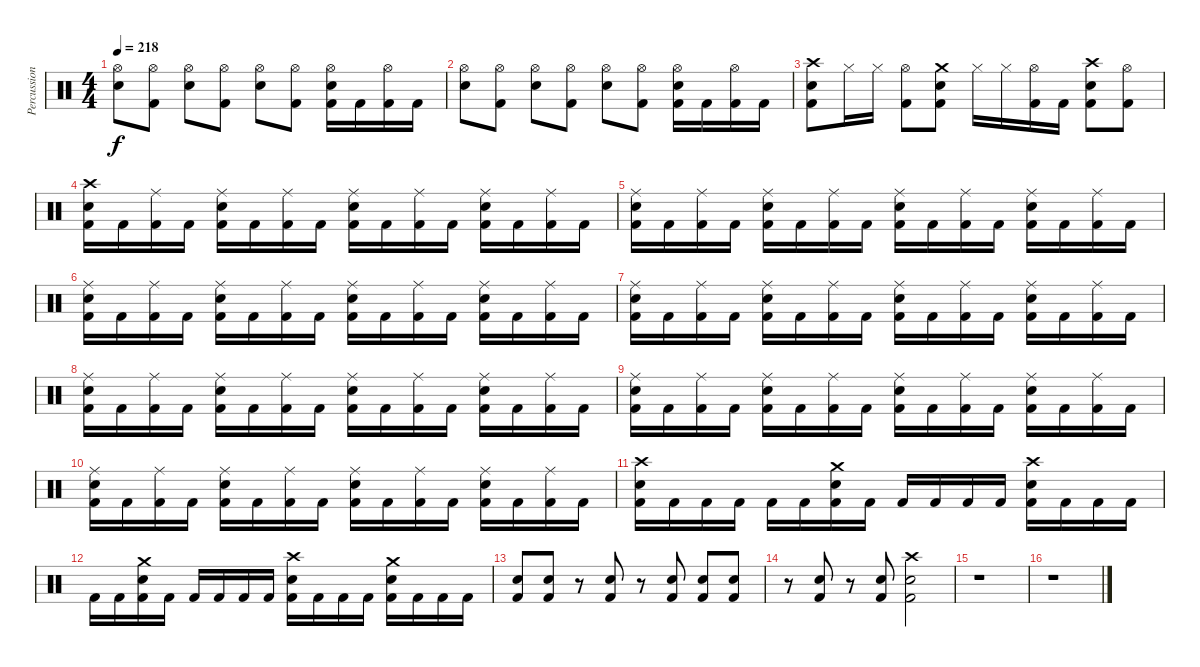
\track ("Percussion" "Percussion") {instrument percussion}
\staff {score}
\articulation defaults
\ts (4 4)
\tempo 218
\clef neutral
\ks c
("Hi-Hat (open)" "Electric Snare (hit)").8{dy f} ("Hi-Hat (open)" "Kick (hit) 2").8 ("Hi-Hat (open)" "Electric Snare (hit)").8 ("Hi-Hat (open)" "Kick (hit) 2").8 ("Hi-Hat (open)" "Electric Snare (hit)").8 ("Hi-Hat (open)" "Kick (hit) 2").8 ("Hi-Hat (open)" "Electric Snare (hit)" "Kick (hit) 2").16 "Kick (hit) 2".16 ("Hi-Hat (open)" "Kick (hit) 2").16 "Kick (hit) 2".16 |
("Hi-Hat (open)" "Electric Snare (hit)").8 ("Hi-Hat (open)" "Kick (hit) 2").8 ("Hi-Hat (open)" "Electric Snare (hit)").8 ("Hi-Hat (open)" "Kick (hit) 2").8 ("Hi-Hat (open)" "Electric Snare (hit)").8 ("Hi-Hat (open)" "Kick (hit) 2").8 ("Hi-Hat (open)" "Electric Snare (hit)" "Kick (hit) 2").16 "Kick (hit) 2".16 ("Hi-Hat (open)" "Kick (hit) 2").16 "Kick (hit) 2".16 |
("Crash high (hit)" "Electric Snare (hit)" "Kick (hit) 2").8 "Hi-Hat (closed)".16 "Hi-Hat (closed)".16 ("Hi-Hat (open)" "Kick (hit) 2").8 ("Crash medium (hit)" "Electric Snare (hit)" "Kick (hit) 2").8 "Hi-Hat (closed)".16 "Hi-Hat (closed)".16 ("Hi-Hat (open)" "Kick (hit) 2").16 "Kick (hit) 2".16 ("Crash high (hit)" "Electric Snare (hit)" "Kick (hit) 2").8 ("Hi-Hat (open)" "Kick (hit) 2").8 |
("Crash high (hit)" "Electric Snare (hit)" "Kick (hit) 2").16 "Kick (hit) 2".16 ("Ride (middle)" "Kick (hit) 2").16 "Kick (hit) 2".16 ("Ride (middle)" "Electric Snare (hit)" "Kick (hit) 2").16 "Kick (hit) 2".16 ("Ride (middle)" "Kick (hit) 2").16 "Kick (hit) 2".16 ("Ride (middle)" "Electric Snare (hit)" "Kick (hit) 2").16 "Kick (hit) 2".16 ("Ride (middle)" "Kick (hit) 2").16 "Kick (hit) 2".16 ("Ride (middle)" "Electric Snare (hit)" "Kick (hit) 2").16 "Kick (hit) 2".16 ("Ride (middle)" "Kick (hit) 2").16 "Kick (hit) 2".16 |
("Ride (middle)" "Electric Snare (hit)" "Kick (hit) 2").16 "Kick (hit) 2".16 ("Ride (middle)" "Kick (hit) 2").16 "Kick (hit) 2".16 ("Ride (middle)" "Electric Snare (hit)" "Kick (hit) 2").16 "Kick (hit) 2".16 ("Ride (middle)" "Kick (hit) 2").16 "Kick (hit) 2".16 ("Ride (middle)" "Electric Snare (hit)" "Kick (hit) 2").16 "Kick (hit) 2".16 ("Ride (middle)" "Kick (hit) 2").16 "Kick (hit) 2".16 ("Ride (middle)" "Electric Snare (hit)" "Kick (hit) 2").16 "Kick (hit) 2".16 ("Ride (middle)" "Kick (hit) 2").16 "Kick (hit) 2".16 |
("Ride (middle)" "Electric Snare (hit)" "Kick (hit) 2").16 "Kick (hit) 2".16 ("Ride (middle)" "Kick (hit) 2").16 "Kick (hit) 2".16 ("Ride (middle)" "Electric Snare (hit)" "Kick (hit) 2").16 "Kick (hit) 2".16 ("Ride (middle)" "Kick (hit) 2").16 "Kick (hit) 2".16 ("Ride (middle)" "Electric Snare (hit)" "Kick (hit) 2").16 "Kick (hit) 2".16 ("Ride (middle)" "Kick (hit) 2").16 "Kick (hit) 2".16 ("Ride (middle)" "Electric Snare (hit)" "Kick (hit) 2").16 "Kick (hit) 2".16 ("Ride (middle)" "Kick (hit) 2").16 "Kick (hit) 2".16 |
("Ride (middle)" "Electric Snare (hit)" "Kick (hit) 2").16 "Kick (hit) 2".16 ("Ride (middle)" "Kick (hit) 2").16 "Kick (hit) 2".16 ("Ride (middle)" "Electric Snare (hit)" "Kick (hit) 2").16 "Kick (hit) 2".16 ("Ride (middle)" "Kick (hit) 2").16 "Kick (hit) 2".16 ("Ride (middle)" "Electric Snare (hit)" "Kick (hit) 2").16 "Kick (hit) 2".16 ("Ride (middle)" "Kick (hit) 2").16 "Kick (hit) 2".16 ("Ride (middle)" "Electric Snare (hit)" "Kick (hit) 2").16 "Kick (hit) 2".16 ("Ride (middle)" "Kick (hit) 2").16 "Kick (hit) 2".16 |
("Ride (middle)" "Electric Snare (hit)" "Kick (hit) 2").16 "Kick (hit) 2".16 ("Ride (middle)" "Kick (hit) 2").16 "Kick (hit) 2".16 ("Ride (middle)" "Electric Snare (hit)" "Kick (hit) 2").16 "Kick (hit) 2".16 ("Ride (middle)" "Kick (hit) 2").16 "Kick (hit) 2".16 ("Ride (middle)" "Electric Snare (hit)" "Kick (hit) 2").16 "Kick (hit) 2".16 ("Ride (middle)" "Kick (hit) 2").16 "Kick (hit) 2".16 ("Ride (middle)" "Electric Snare (hit)" "Kick (hit) 2").16 "Kick (hit) 2".16 ("Ride (middle)" "Kick (hit) 2").16 "Kick (hit) 2".16 |
("Ride (middle)" "Electric Snare (hit)" "Kick (hit) 2").16 "Kick (hit) 2".16 ("Ride (middle)" "Kick (hit) 2").16 "Kick (hit) 2".16 ("Ride (middle)" "Electric Snare (hit)" "Kick (hit) 2").16 "Kick (hit) 2".16 ("Ride (middle)" "Kick (hit) 2").16 "Kick (hit) 2".16 ("Ride (middle)" "Electric Snare (hit)" "Kick (hit) 2").16 "Kick (hit) 2".16 ("Ride (middle)" "Kick (hit) 2").16 "Kick (hit) 2".16 ("Ride (middle)" "Electric Snare (hit)" "Kick (hit) 2").16 "Kick (hit) 2".16 ("Ride (middle)" "Kick (hit) 2").16 "Kick (hit) 2".16 |
("Ride (middle)" "Electric Snare (hit)" "Kick (hit) 2").16 "Kick (hit) 2".16 ("Ride (middle)" "Kick (hit) 2").16 "Kick (hit) 2".16 ("Ride (middle)" "Electric Snare (hit)" "Kick (hit) 2").16 "Kick (hit) 2".16 ("Ride (middle)" "Kick (hit) 2").16 "Kick (hit) 2".16 ("Ride (middle)" "Electric Snare (hit)" "Kick (hit) 2").16 "Kick (hit) 2".16 ("Ride (middle)" "Kick (hit) 2").16 "Kick (hit) 2".16 ("Ride (middle)" "Electric Snare (hit)" "Kick (hit) 2").16 "Kick (hit) 2".16 ("Ride (middle)" "Kick (hit) 2").16 "Kick (hit) 2".16 |
("Crash high (hit)" "Electric Snare (hit)" "Kick (hit) 2").16 "Kick (hit) 2".16 "Kick (hit) 2".16 "Kick (hit) 2".16 "Kick (hit) 2".16 "Kick (hit) 2".16 ("Crash medium (hit)" "Electric Snare (hit)" "Kick (hit) 2").16 "Kick (hit) 2".16 "Kick (hit) 2".16 "Kick (hit) 2".16 "Kick (hit) 2".16 "Kick (hit) 2".16 ("Crash high (hit)" "Electric Snare (hit)" "Kick (hit) 2").16 "Kick (hit) 2".16 "Kick (hit) 2".16 "Kick (hit) 2".16 |
"Kick (hit) 2".16 "Kick (hit) 2".16 ("Crash medium (hit)" "Electric Snare (hit)" "Kick (hit) 2").16 "Kick (hit) 2".16 "Kick (hit) 2".16 "Kick (hit) 2".16 "Kick (hit) 2".16 "Kick (hit) 2".16 ("Crash high (hit)" "Electric Snare (hit)" "Kick (hit) 2").16 "Kick (hit) 2".16 "Kick (hit) 2".16 "Kick (hit) 2".16 ("Crash medium (hit)" "Electric Snare (hit)" "Kick (hit) 2").16 "Kick (hit) 2".16 "Kick (hit) 2".16 "Kick (hit) 2".16 |
("Electric Snare (hit)" "Kick (hit) 2").8 ("Electric Snare (hit)" "Kick (hit) 2").8 r.8 ("Electric Snare (hit)" "Kick (hit) 2").8 r.8 ("Electric Snare (hit)" "Kick (hit) 2").8 ("Electric Snare (hit)" "Kick (hit) 2").8 ("Electric Snare (hit)" "Kick (hit) 2").8 |
r.8 ("Electric Snare (hit)" "Kick (hit) 2").8 r.8 ("Electric Snare (hit)" "Kick (hit) 2").8 ("Crash high (hit)" "Electric Snare (hit)" "Kick (hit) 2").2 |
r.1 |
r.1
